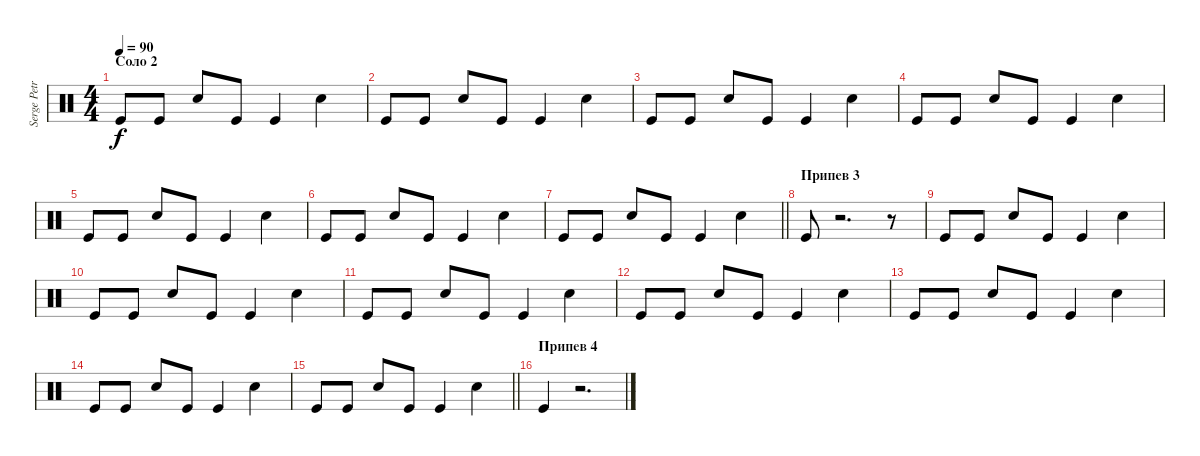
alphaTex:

\track ("Serge Petrone" "Serge Petr") {instrument percussion}
\staff {score}
\articulation defaults
\ts (4 4)
\section ("" "Соло 2")
\tempo 90
\clef neutral
\ks c "Kick (hit)".8{dy f} "Kick (hit)".8 "Snare (hit) 2".8 "Kick (hit)".8 "Kick (hit)".4 "Snare (hit) 2".4
|
"Kick (hit)".8 "Kick (hit)".8 "Snare (hit) 2".8 "Kick (hit)".8 "Kick (hit)".4 "Snare (hit) 2".4 |
"Kick (hit)".8 "Kick (hit)".8 "Snare (hit) 2".8 "Kick (hit)".8 "Kick (hit)".4 "Snare (hit) 2".4 |
"Kick (hit)".8 "Kick (hit)".8 "Snare (hit) 2".8 "Kick (hit)".8 "Kick (hit)".4 "Snare (hit) 2".4 |
"Kick (hit)".8 "Kick (hit)".8 "Snare (hit) 2".8 "Kick (hit)".8 "Kick (hit)".4 "Snare (hit) 2".4 |
"Kick (hit)".8 "Kick (hit)".8 "Snare (hit) 2".8 "Kick (hit)".8 "Kick (hit)".4 "Snare (hit) 2".4 |
\barLineRight lightlight "Kick (hit)".8 "Kick (hit)".8 "Snare (hit) 2".8 "Kick (hit)".8 "Kick (hit)".4 "Snare (hit) 2".4
|
\section ("" "Припев 3")
"Kick (hit)".8 r.2{d} r.8 |
"Kick (hit)".8 "Kick (hit)".8 "Snare (hit) 2".8 "Kick (hit)".8 "Kick (hit)".4 "Snare (hit) 2".4 |
"Kick (hit)".8 "Kick (hit)".8 "Snare (hit) 2".8 "Kick (hit)".8 "Kick (hit)".4 "Snare (hit) 2".4 |
"Kick (hit)".8 "Kick (hit)".8 "Snare (hit) 2".8 "Kick (hit)".8 "Kick (hit)".4 "Snare (hit) 2".4 |
"Kick (hit)".8 "Kick (hit)".8 "Snare (hit) 2".8 "Kick (hit)".8 "Kick (hit)".4 "Snare (hit) 2".4 |
"Kick (hit)".8 "Kick (hit)".8 "Snare (hit) 2".8 "Kick (hit)".8 "Kick (hit)".4 "Snare (hit) 2".4 |
"Kick (hit)".8 "Kick (hit)".8 "Snare (hit) 2".8 "Kick (hit)".8 "Kick (hit)".4 "Snare (hit) 2".4 |
\barLineRight lightlight "Kick (hit)".8 "Kick (hit)".8 "Snare (hit) 2".8 "Kick (hit)".8 "Kick (hit)".4 "Snare (hit) 2".4
|
\section ("" "Припев 4")
"Kick (hit)".4 r.2{d}
